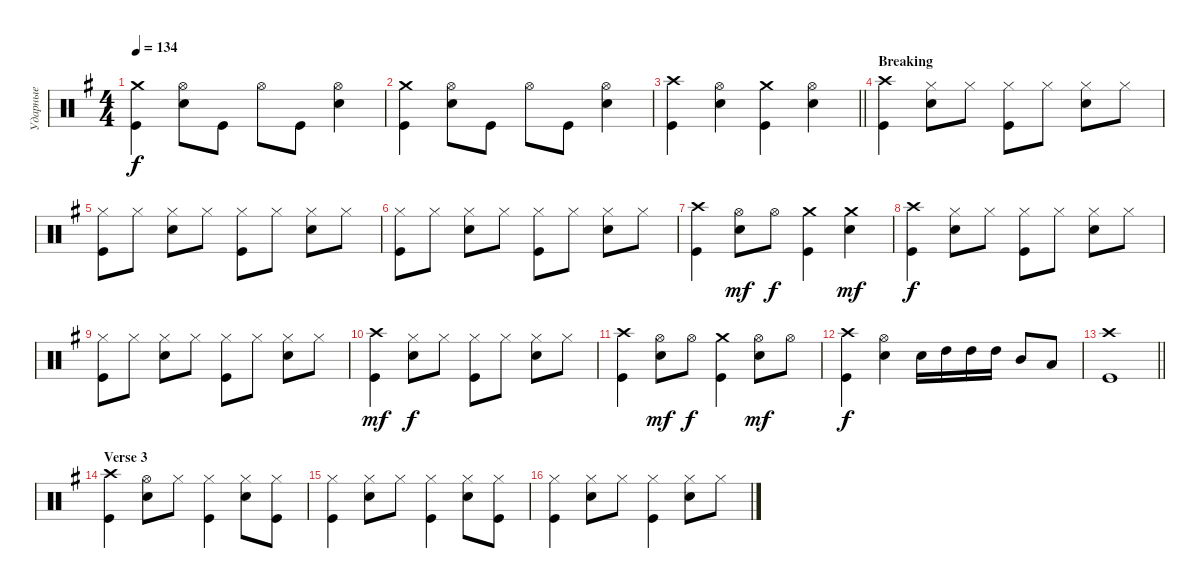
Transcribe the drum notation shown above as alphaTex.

\track ("Ударные" "Ударные") {instrument percussion}
\staff {score}
\articulation defaults
\ts (4 4)
\tempo 134
\clef neutral
\ks eminor
("Kick (hit)" "Crash medium (hit)").4{dy f} ("Snare (hit) 2" "Hi-Hat (open)").8 "Kick (hit)".8 "Hi-Hat (open)".8 "Kick (hit)".8 ("Snare (hit) 2" "Hi-Hat (open)").4 |
("Kick (hit)" "Crash medium (hit)").4 ("Snare (hit) 2" "Hi-Hat (open)").8 "Kick (hit)".8 "Hi-Hat (open)".8 "Kick (hit)".8 ("Snare (hit) 2" "Hi-Hat (open)").4 |
\barLineRight lightlight
("Kick (hit)" "Crash high (hit)").4 ("Snare (hit) 2" "Hi-Hat (open)").4 ("Crash medium (hit)" "Kick (hit)").4 ("Snare (hit) 2" "Hi-Hat (open)").4 |
\section ("" "Breaking")
("Crash high (hit)" "Kick (hit)").4 ("Hi-Hat (closed)" "Snare (hit) 2").8 "Hi-Hat (closed)".8 ("Hi-Hat (closed)" "Kick (hit)").8 "Hi-Hat (closed)".8 ("Hi-Hat (closed)" "Snare (hit) 2").8 "Hi-Hat (closed)".8 |
("Hi-Hat (closed)" "Kick (hit)").8 "Hi-Hat (closed)".8 ("Hi-Hat (closed)" "Snare (hit) 2").8 "Hi-Hat (closed)".8 ("Hi-Hat (closed)" "Kick (hit)").8 "Hi-Hat (closed)".8 ("Hi-Hat (closed)" "Snare (hit) 2").8 "Hi-Hat (closed)".8 |
("Hi-Hat (closed)" "Kick (hit)").8 "Hi-Hat (closed)".8 ("Hi-Hat (closed)" "Snare (hit) 2").8 "Hi-Hat (closed)".8 ("Hi-Hat (closed)" "Kick (hit)").8 "Hi-Hat (closed)".8 ("Hi-Hat (closed)" "Snare (hit) 2").8 "Hi-Hat (closed)".8 |
("Crash high (hit)" "Kick (hit)").4 ("Hi-Hat (open)" "Snare (hit) 2").8{dy mf} "Hi-Hat (open)".8{dy f} ("Crash medium (hit)" "Kick (hit)").4 ("Crash medium (hit)" "Snare (hit) 2").4{dy mf} |
("Crash high (hit)" "Kick (hit)").4{dy f} ("Hi-Hat (closed)" "Snare (hit) 2").8 "Hi-Hat (closed)".8 ("Hi-Hat (closed)" "Kick (hit)").8 "Hi-Hat (closed)".8 ("Hi-Hat (closed)" "Snare (hit) 2").8 "Hi-Hat (closed)".8 |
("Hi-Hat (closed)" "Kick (hit)").8 "Hi-Hat (closed)".8 ("Hi-Hat (closed)" "Snare (hit) 2").8 "Hi-Hat (closed)".8 ("Hi-Hat (closed)" "Kick (hit)").8 "Hi-Hat (closed)".8 ("Hi-Hat (closed)" "Snare (hit) 2").8 "Hi-Hat (closed)".8 |
("Crash high (hit)" "Kick (hit)").4{dy mf} ("Hi-Hat (closed)" "Snare (hit) 2").8{dy f} "Hi-Hat (closed)".8 ("Hi-Hat (closed)" "Kick (hit)").8 "Hi-Hat (closed)".8 ("Hi-Hat (closed)" "Snare (hit) 2").8 "Hi-Hat (closed)".8 |
("Crash high (hit)" "Kick (hit)").4 ("Hi-Hat (open)" "Snare (hit) 2").8{dy mf} "Hi-Hat (open)".8{dy f} ("Crash medium (hit)" "Kick (hit)").4 ("Snare (hit) 2" "Hi-Hat (open)").8{dy mf} "Hi-Hat (open)".8 |
("Kick (hit)" "Crash high (hit)").4{dy f} ("Hi-Hat (open)" "Snare (hit) 2").4 "Snare (hit) 2".16 "High Tom (hit)".16 "High Tom (hit)".16 "High Tom (hit)".16 "Mid Tom (hit)".8 "Low Tom (hit)".8 |
\barLineRight lightlight
("Kick (hit)" "Crash high (hit)").1 |
\section ("" "Verse 3")
("Crash high (hit)" "Kick (hit)").4 ("Hi-Hat (open)" "Snare (hit) 2").8 "Hi-Hat (closed)".8 ("Hi-Hat (closed)" "Kick (hit)").4 ("Hi-Hat (closed)" "Snare (hit) 2").8 ("Hi-Hat (closed)" "Kick (hit)").8 |
("Hi-Hat (closed)" "Kick (hit)").4 ("Hi-Hat (closed)" "Snare (hit) 2").8 "Hi-Hat (closed)".8 ("Hi-Hat (closed)" "Kick (hit)").4 ("Hi-Hat (closed)" "Snare (hit) 2").8 ("Hi-Hat (closed)" "Kick (hit)").8 |
("Hi-Hat (closed)" "Kick (hit)").4 ("Hi-Hat (closed)" "Snare (hit) 2").8 "Hi-Hat (closed)".8 ("Hi-Hat (closed)" "Kick (hit)").4 ("Hi-Hat (closed)" "Snare (hit) 2").8 "Hi-Hat (closed)".8
